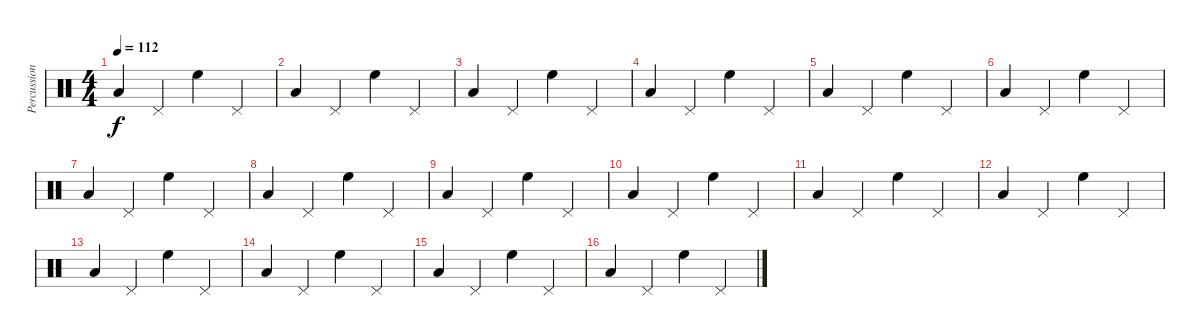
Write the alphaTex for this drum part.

\track ("Percussion" "Percussion") {instrument percussion}
\staff {score}
\articulation defaults
\ts (4 4)
\tempo 112
\clef neutral
\ks c "Low Floor Tom (hit)".4{dy f} "Pedal Hi-Hat (hit)".4 "High Floor Tom (hit)".4 "Pedal Hi-Hat (hit)".4
|
"Low Floor Tom (hit)".4 "Pedal Hi-Hat (hit)".4 "High Floor Tom (hit)".4 "Pedal Hi-Hat (hit)".4 |
"Low Floor Tom (hit)".4 "Pedal Hi-Hat (hit)".4 "High Floor Tom (hit)".4 "Pedal Hi-Hat (hit)".4 |
"Low Floor Tom (hit)".4 "Pedal Hi-Hat (hit)".4 "High Floor Tom (hit)".4 "Pedal Hi-Hat (hit)".4 |
"Low Floor Tom (hit)".4 "Pedal Hi-Hat (hit)".4 "High Floor Tom (hit)".4 "Pedal Hi-Hat (hit)".4 |
"Low Floor Tom (hit)".4 "Pedal Hi-Hat (hit)".4 "High Floor Tom (hit)".4 "Pedal Hi-Hat (hit)".4 |
"Low Floor Tom (hit)".4 "Pedal Hi-Hat (hit)".4 "High Floor Tom (hit)".4 "Pedal Hi-Hat (hit)".4 |
"Low Floor Tom (hit)".4 "Pedal Hi-Hat (hit)".4 "High Floor Tom (hit)".4 "Pedal Hi-Hat (hit)".4 |
"Low Floor Tom (hit)".4 "Pedal Hi-Hat (hit)".4 "High Floor Tom (hit)".4 "Pedal Hi-Hat (hit)".4 |
"Low Floor Tom (hit)".4 "Pedal Hi-Hat (hit)".4 "High Floor Tom (hit)".4 "Pedal Hi-Hat (hit)".4 |
"Low Floor Tom (hit)".4 "Pedal Hi-Hat (hit)".4 "High Floor Tom (hit)".4 "Pedal Hi-Hat (hit)".4 |
"Low Floor Tom (hit)".4 "Pedal Hi-Hat (hit)".4 "High Floor Tom (hit)".4 "Pedal Hi-Hat (hit)".4 |
"Low Floor Tom (hit)".4 "Pedal Hi-Hat (hit)".4 "High Floor Tom (hit)".4 "Pedal Hi-Hat (hit)".4 |
"Low Floor Tom (hit)".4 "Pedal Hi-Hat (hit)".4 "High Floor Tom (hit)".4 "Pedal Hi-Hat (hit)".4 |
"Low Floor Tom (hit)".4 "Pedal Hi-Hat (hit)".4 "High Floor Tom (hit)".4 "Pedal Hi-Hat (hit)".4 |
"Low Floor Tom (hit)".4 "Pedal Hi-Hat (hit)".4 "High Floor Tom (hit)".4 "Pedal Hi-Hat (hit)".4
